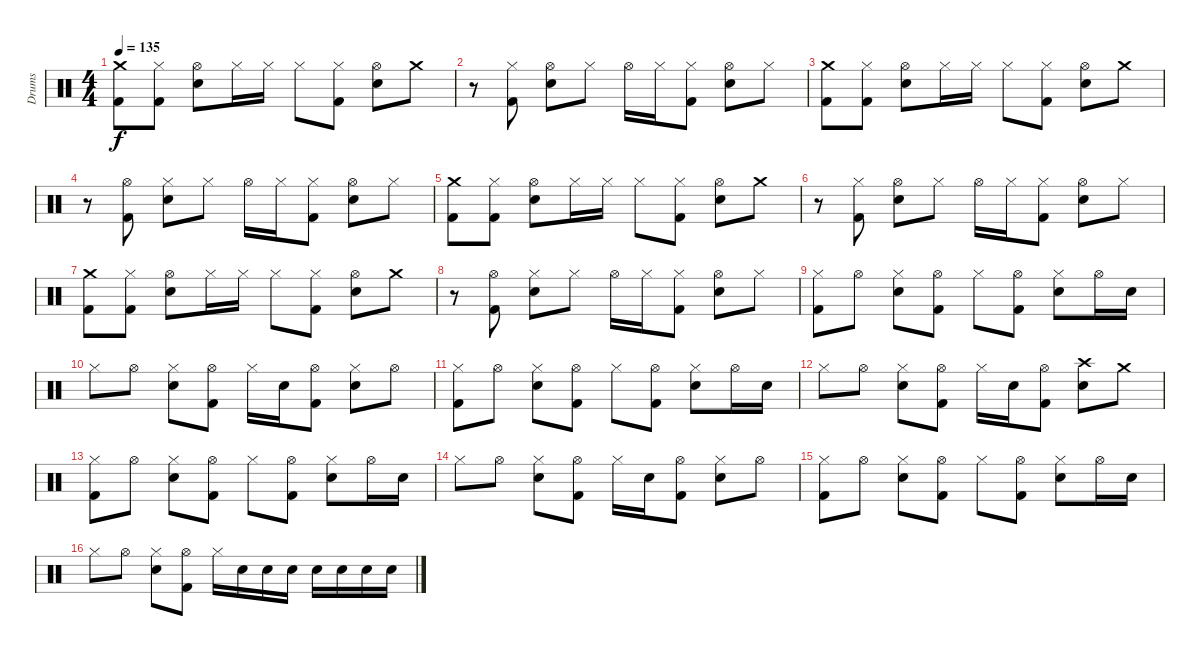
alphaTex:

\track ("Drums" "Drums") {instrument percussion}
\staff {score}
\articulation defaults
\ts (4 4)
\tempo 135
\clef neutral
\ks c
("Crash medium (hit)" "Kick (hit) 2").8{dy f} ("Hi-Hat (closed)" "Kick (hit) 2").8 ("Hi-Hat (open)" "Electric Snare (hit)").8 "Hi-Hat (closed)".16 "Hi-Hat (closed)".16 "Hi-Hat (closed)".8 ("Hi-Hat (closed)" "Kick (hit) 2").8 ("Hi-Hat (open)" "Electric Snare (hit)").8 "Crash medium (hit)".8 |
r.8 ("Hi-Hat (closed)" "Kick (hit) 2").8 ("Hi-Hat (open)" "Electric Snare (hit)").8 "Hi-Hat (closed)".8 "Hi-Hat (open)".16 "Hi-Hat (closed)".16 ("Hi-Hat (closed)" "Kick (hit) 2").8 ("Hi-Hat (open)" "Electric Snare (hit)").8 "Hi-Hat (closed)".8 |
("Crash medium (hit)" "Kick (hit) 2").8 ("Hi-Hat (closed)" "Kick (hit) 2").8 ("Hi-Hat (open)" "Electric Snare (hit)").8 "Hi-Hat (closed)".16 "Hi-Hat (closed)".16 "Hi-Hat (closed)".8 ("Hi-Hat (closed)" "Kick (hit) 2").8 ("Hi-Hat (open)" "Electric Snare (hit)").8 "Crash medium (hit)".8 |
r.8 ("Hi-Hat (open)" "Kick (hit) 2").8 ("Hi-Hat (closed)" "Electric Snare (hit)").8 "Hi-Hat (closed)".8 "Hi-Hat (open)".16 "Hi-Hat (closed)".16 ("Hi-Hat (closed)" "Kick (hit) 2").8 ("Hi-Hat (open)" "Electric Snare (hit)").8 "Hi-Hat (closed)".8 |
("Crash medium (hit)" "Kick (hit) 2").8 ("Hi-Hat (closed)" "Kick (hit) 2").8 ("Hi-Hat (open)" "Electric Snare (hit)").8 "Hi-Hat (closed)".16 "Hi-Hat (closed)".16 "Hi-Hat (closed)".8 ("Hi-Hat (closed)" "Kick (hit) 2").8 ("Hi-Hat (open)" "Electric Snare (hit)").8 "Crash medium (hit)".8 |
r.8 ("Hi-Hat (closed)" "Kick (hit) 2").8 ("Hi-Hat (open)" "Electric Snare (hit)").8 "Hi-Hat (closed)".8 "Hi-Hat (open)".16 "Hi-Hat (closed)".16 ("Hi-Hat (closed)" "Kick (hit) 2").8 ("Hi-Hat (open)" "Electric Snare (hit)").8 "Hi-Hat (closed)".8 |
("Crash medium (hit)" "Kick (hit) 2").8 ("Hi-Hat (closed)" "Kick (hit) 2").8 ("Hi-Hat (open)" "Electric Snare (hit)").8 "Hi-Hat (closed)".16 "Hi-Hat (closed)".16 "Hi-Hat (closed)".8 ("Hi-Hat (closed)" "Kick (hit) 2").8 ("Hi-Hat (open)" "Electric Snare (hit)").8 "Crash medium (hit)".8 |
r.8 ("Hi-Hat (open)" "Kick (hit) 2").8 ("Hi-Hat (closed)" "Electric Snare (hit)").8 "Hi-Hat (closed)".8 "Hi-Hat (open)".16 "Hi-Hat (closed)".16 ("Hi-Hat (closed)" "Kick (hit) 2").8 ("Hi-Hat (open)" "Electric Snare (hit)").8 "Hi-Hat (closed)".8 |
("Hi-Hat (closed)" "Kick (hit) 2").8 "Hi-Hat (open)".8 ("Hi-Hat (closed)" "Electric Snare (hit)").8 ("Hi-Hat (open)" "Kick (hit) 2").8 "Hi-Hat (closed)".8 ("Hi-Hat (open)" "Kick (hit) 2").8 ("Hi-Hat (closed)" "Electric Snare (hit)").8 "Hi-Hat (open)".16 "Electric Snare (hit)".16 |
"Hi-Hat (closed)".8 "Hi-Hat (open)".8 ("Hi-Hat (closed)" "Electric Snare (hit)").8 ("Hi-Hat (open)" "Kick (hit) 2").8 "Hi-Hat (closed)".16 "Electric Snare (hit)".16 ("Hi-Hat (open)" "Kick (hit) 2").8 ("Hi-Hat (closed)" "Electric Snare (hit)").8 "Hi-Hat (open)".8 |
("Hi-Hat (closed)" "Kick (hit) 2").8 "Hi-Hat (open)".8 ("Hi-Hat (closed)" "Electric Snare (hit)").8 ("Hi-Hat (open)" "Kick (hit) 2").8 "Hi-Hat (closed)".8 ("Hi-Hat (open)" "Kick (hit) 2").8 ("Hi-Hat (closed)" "Electric Snare (hit)").8 "Hi-Hat (open)".16 "Electric Snare (hit)".16 |
"Hi-Hat (closed)".8 "Hi-Hat (open)".8 ("Hi-Hat (closed)" "Electric Snare (hit)").8 ("Hi-Hat (open)" "Kick (hit) 2").8 "Hi-Hat (closed)".16 "Electric Snare (hit)".16 ("Hi-Hat (open)" "Kick (hit) 2").8 ("Crash high (hit)" "Electric Snare (hit)").8 "Crash medium (hit)".8 |
("Hi-Hat (closed)" "Kick (hit) 2").8 "Hi-Hat (open)".8 ("Hi-Hat (closed)" "Electric Snare (hit)").8 ("Hi-Hat (open)" "Kick (hit) 2").8 "Hi-Hat (closed)".8 ("Hi-Hat (open)" "Kick (hit) 2").8 ("Hi-Hat (closed)" "Electric Snare (hit)").8 "Hi-Hat (open)".16 "Electric Snare (hit)".16 |
"Hi-Hat (closed)".8 "Hi-Hat (open)".8 ("Hi-Hat (closed)" "Electric Snare (hit)").8 ("Hi-Hat (open)" "Kick (hit) 2").8 "Hi-Hat (closed)".16 "Electric Snare (hit)".16 ("Hi-Hat (open)" "Kick (hit) 2").8 ("Hi-Hat (closed)" "Electric Snare (hit)").8 "Hi-Hat (open)".8 |
("Hi-Hat (closed)" "Kick (hit) 2").8 "Hi-Hat (open)".8 ("Hi-Hat (closed)" "Electric Snare (hit)").8 ("Hi-Hat (open)" "Kick (hit) 2").8 "Hi-Hat (closed)".8 ("Hi-Hat (open)" "Kick (hit) 2").8 ("Hi-Hat (closed)" "Electric Snare (hit)").8 "Hi-Hat (open)".16 "Electric Snare (hit)".16 |
"Hi-Hat (closed)".8 "Hi-Hat (open)".8 ("Hi-Hat (closed)" "Electric Snare (hit)").8 ("Hi-Hat (open)" "Kick (hit) 2").8 "Hi-Hat (closed)".16 "Electric Snare (hit)".16 "Electric Snare (hit)".16 "Electric Snare (hit)".16 "Electric Snare (hit)".16 "Electric Snare (hit)".16 "Electric Snare (hit)".16 "Electric Snare (hit)".16
